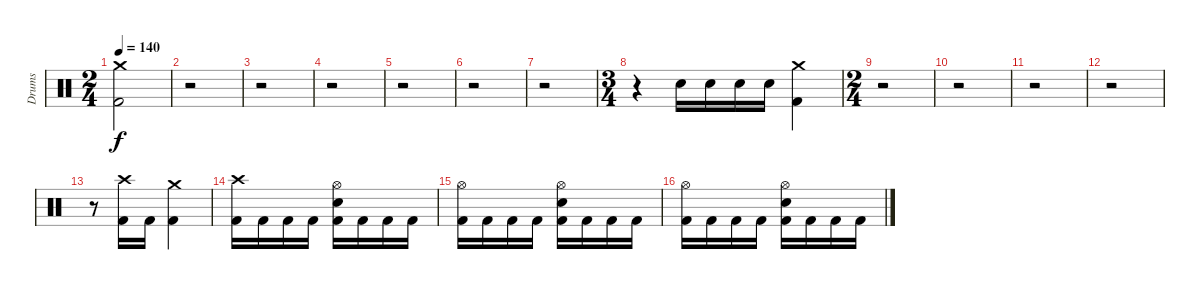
\track ("Drums" "Drums") {instrument percussion}
\staff {score}
\articulation defaults
\ts (2 4)
\tempo 140
\clef neutral
\ks c
("Kick (hit) 2" "Crash medium (hit)").2{dy f} |
r.2 |
r.2 |
r.2 |
r.2 |
r.2 |
r.2 |
\ts (3 4)
r.4 "Electric Snare (hit)".16 "Electric Snare (hit)".16 "Electric Snare (hit)".16 "Electric Snare (hit)".16 ("Kick (hit) 2" "Crash medium (hit)").4 |
\ts (2 4)
r.2 |
r.2 |
r.2 |
r.2 |
r.8 ("Kick (hit) 2" "Crash high (hit)").16 "Kick (hit) 2".16 ("Kick (hit) 2" "Crash medium (hit)").4 |
("Kick (hit) 2" "Crash high (hit)").16 "Kick (hit) 2".16 "Kick (hit) 2".16 "Kick (hit) 2".16 ("Kick (hit) 2" "Electric Snare (hit)" "Hi-Hat (open)").16 "Kick (hit) 2".16 "Kick (hit) 2".16 "Kick (hit) 2".16 |
("Kick (hit) 2" "Hi-Hat (open)").16 "Kick (hit) 2".16 "Kick (hit) 2".16 "Kick (hit) 2".16 ("Kick (hit) 2" "Electric Snare (hit)" "Hi-Hat (open)").16 "Kick (hit) 2".16 "Kick (hit) 2".16 "Kick (hit) 2".16 |
("Kick (hit) 2" "Hi-Hat (open)").16 "Kick (hit) 2".16 "Kick (hit) 2".16 "Kick (hit) 2".16 ("Kick (hit) 2" "Electric Snare (hit)" "Hi-Hat (open)").16 "Kick (hit) 2".16 "Kick (hit) 2".16 "Kick (hit) 2".16
